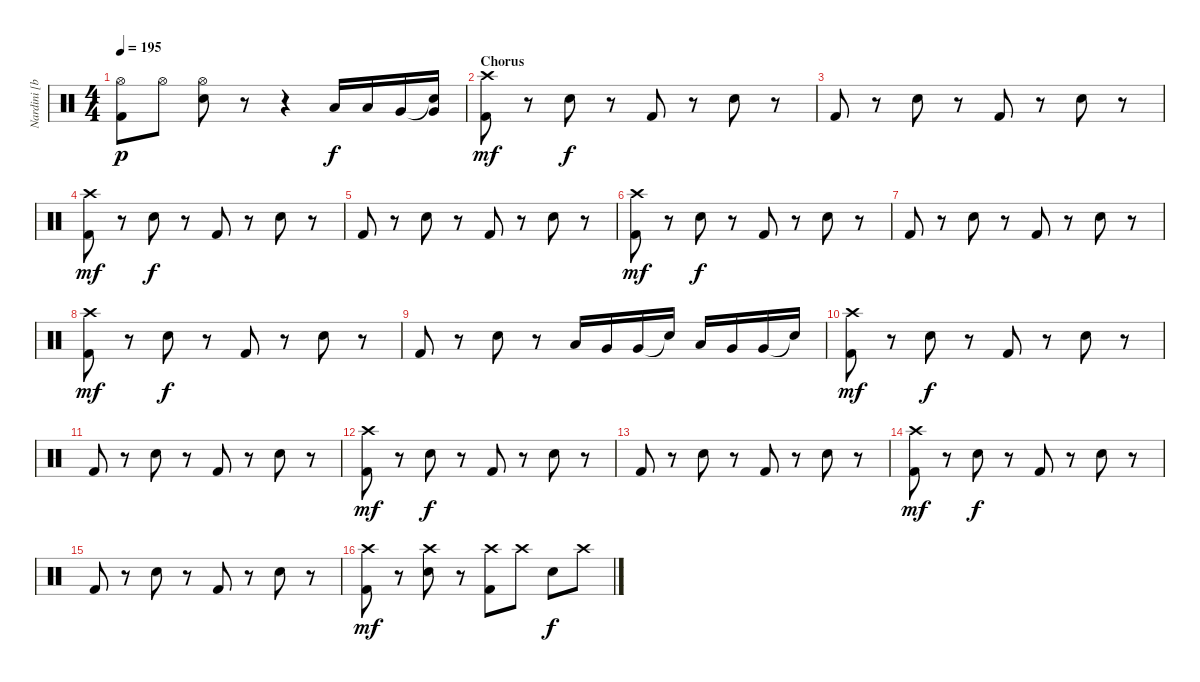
\track ("Nardini [batteria]" "Nardini [b") {instrument percussion}
\staff {score}
\articulation defaults
\ts (4 4)
\tempo 195
\clef neutral
\ks c
("Hi-Hat (open)" "Kick (hit) 2").8{dy p} "Hi-Hat (open)".8 ("Hi-Hat (open)" "Electric Snare (hit)").8 r.8 r.4 "Low Tom (hit)".16{dy f} "Low Tom (hit)".16 "Very Low Tom (hit)".16 ("Snare (hit)"{t} "Very Low Tom (hit)").16 |
\section ("" "Chorus")
("Crash high (hit)" "Kick (hit) 2").8{dy mf} r.8 "Electric Snare (hit)".8{dy f} r.8 "Kick (hit) 2".8 r.8 "Electric Snare (hit)".8 r.8 |
"Kick (hit) 2".8 r.8 "Electric Snare (hit)".8 r.8 "Kick (hit) 2".8 r.8 "Electric Snare (hit)".8 r.8 |
("Crash high (hit)" "Kick (hit) 2").8{dy mf} r.8 "Electric Snare (hit)".8{dy f} r.8 "Kick (hit) 2".8 r.8 "Electric Snare (hit)".8 r.8 |
"Kick (hit) 2".8 r.8 "Electric Snare (hit)".8 r.8 "Kick (hit) 2".8 r.8 "Electric Snare (hit)".8 r.8 |
("Crash high (hit)" "Kick (hit) 2").8{dy mf} r.8 "Electric Snare (hit)".8{dy f} r.8 "Kick (hit) 2".8 r.8 "Electric Snare (hit)".8 r.8 |
"Kick (hit) 2".8 r.8 "Electric Snare (hit)".8 r.8 "Kick (hit) 2".8 r.8 "Electric Snare (hit)".8 r.8 |
("Crash high (hit)" "Kick (hit) 2").8{dy mf} r.8 "Electric Snare (hit)".8{dy f} r.8 "Kick (hit) 2".8 r.8 "Electric Snare (hit)".8 r.8 |
"Kick (hit) 2".8 r.8 "Electric Snare (hit)".8 r.8 "Low Tom (hit)".16 "Very Low Tom (hit)".16 "Very Low Tom (hit)".16 "Electric Snare (hit)"{t}.16 "Low Tom (hit)".16 "Very Low Tom (hit)".16 "Very Low Tom (hit)".16 "Snare (hit)"{t}.16 |
("Crash high (hit)" "Kick (hit) 2").8{dy mf} r.8 "Electric Snare (hit)".8{dy f} r.8 "Kick (hit) 2".8 r.8 "Electric Snare (hit)".8 r.8 |
"Kick (hit) 2".8 r.8 "Electric Snare (hit)".8 r.8 "Kick (hit) 2".8 r.8 "Electric Snare (hit)".8 r.8 |
("Crash high (hit)" "Kick (hit) 2").8{dy mf} r.8 "Electric Snare (hit)".8{dy f} r.8 "Kick (hit) 2".8 r.8 "Electric Snare (hit)".8 r.8 |
"Kick (hit) 2".8 r.8 "Electric Snare (hit)".8 r.8 "Kick (hit) 2".8 r.8 "Electric Snare (hit)".8 r.8 |
("Crash high (hit)" "Kick (hit) 2").8{dy mf} r.8 "Electric Snare (hit)".8{dy f} r.8 "Kick (hit) 2".8 r.8 "Electric Snare (hit)".8 r.8 |
"Kick (hit) 2".8 r.8 "Electric Snare (hit)".8 r.8 "Kick (hit) 2".8 r.8 "Electric Snare (hit)".8 r.8 |
("Crash high (hit)" "Kick (hit) 2").8{dy mf} r.8 ("Crash high (hit)" "Electric Snare (hit)").8 r.8 ("Crash high (hit)" "Kick (hit) 2").8 "Crash high (hit)".8 "Electric Snare (hit)".8{dy f} "Crash high (hit)".8
